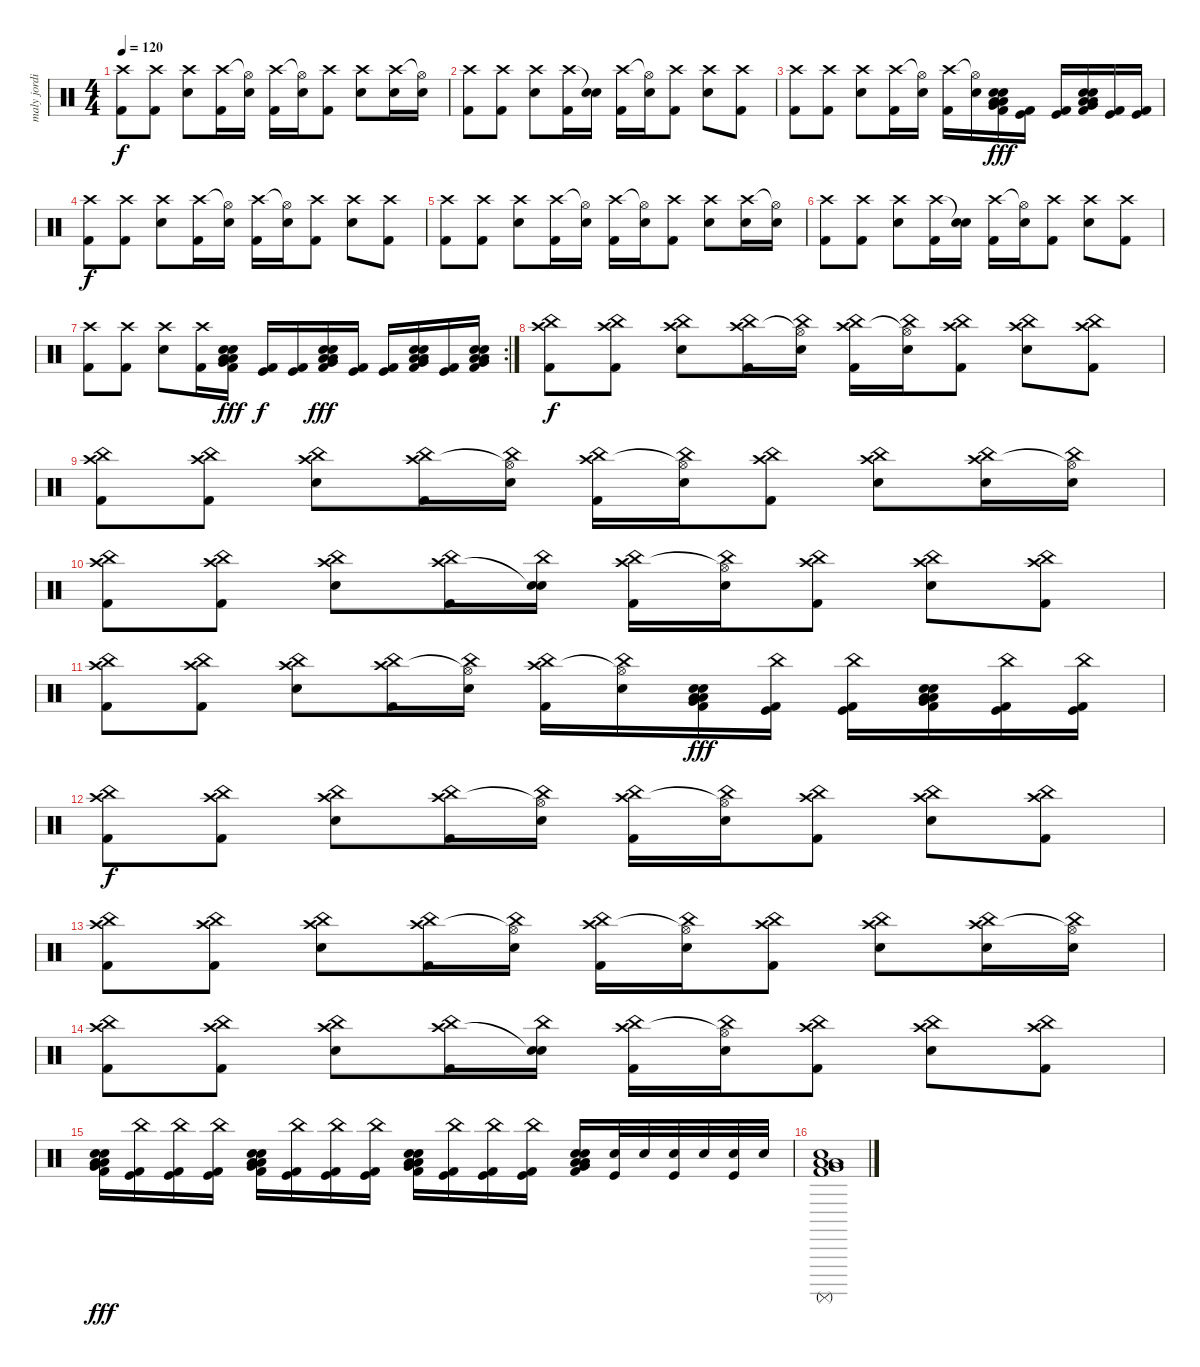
\track ("maly jordison" "maly jordi") {instrument percussion}
\staff {score}
\articulation defaults
\ts (4 4)
\tempo 120
\clef neutral
\ks c
("Crash high (hit)" "Kick (hit) 2").8{dy f} ("Crash high (hit)" "Kick (hit) 2").8 ("Crash high (hit)" "Electric Snare (hit)").8 ("Crash high (hit)" "Kick (hit) 2").16 ("Hi-Hat (open)"{t} "Electric Snare (hit)").16 ("Crash high (hit)" "Kick (hit) 2").16 ("Hi-Hat (open)"{t} "Electric Snare (hit)").16 ("Crash high (hit)" "Kick (hit) 2").8 ("Crash high (hit)" "Electric Snare (hit)").8 ("Crash high (hit)" "Electric Snare (hit)").16 ("Hi-Hat (open)"{t} "Electric Snare (hit)").16 |
("Crash high (hit)" "Kick (hit) 2").8 ("Crash high (hit)" "Kick (hit) 2").8 ("Crash high (hit)" "Electric Snare (hit)").8 ("Crash high (hit)" "Kick (hit) 2").16 ("Snare (hit)"{t} "Electric Snare (hit)").16 ("Crash high (hit)" "Kick (hit) 2").16 ("Hi-Hat (open)"{t} "Electric Snare (hit)").16 ("Crash high (hit)" "Kick (hit) 2").8 ("Crash high (hit)" "Electric Snare (hit)").8 ("Crash high (hit)" "Kick (hit) 2").8 |
("Crash high (hit)" "Kick (hit) 2").8 ("Crash high (hit)" "Kick (hit) 2").8 ("Crash high (hit)" "Electric Snare (hit)").8 ("Crash high (hit)" "Kick (hit) 2").16 ("Hi-Hat (open)"{t} "Electric Snare (hit)").16 ("Crash high (hit)" "Kick (hit) 2").16 ("Hi-Hat (open)"{t} "Electric Snare (hit)").16 ("Kick (hit) 2" "Very Low Tom (hit)" "Low Floor Tom (hit)" "Low Floor Tom (hit)" "Electric Snare (hit)" "Electric Snare (hit)").16{dy fff} ("Kick (hit)" "Kick (hit) 2").16 ("Kick (hit)" "Kick (hit) 2").16 ("Kick (hit) 2" "Very Low Tom (hit)" "Low Floor Tom (hit)" "Low Floor Tom (hit)" "Electric Snare (hit)" "Electric Snare (hit)").16 ("Kick (hit)" "Kick (hit) 2").16 ("Kick (hit)" "Kick (hit) 2").16 |
("Crash high (hit)" "Kick (hit) 2").8{dy f} ("Crash high (hit)" "Kick (hit) 2").8 ("Crash high (hit)" "Electric Snare (hit)").8 ("Crash high (hit)" "Kick (hit) 2").16 ("Hi-Hat (open)"{t} "Electric Snare (hit)").16 ("Crash high (hit)" "Kick (hit) 2").16 ("Hi-Hat (open)"{t} "Electric Snare (hit)").16 ("Crash high (hit)" "Kick (hit) 2").8 ("Crash high (hit)" "Electric Snare (hit)").8 ("Crash high (hit)" "Kick (hit) 2").8 |
("Crash high (hit)" "Kick (hit) 2").8 ("Crash high (hit)" "Kick (hit) 2").8 ("Crash high (hit)" "Electric Snare (hit)").8 ("Crash high (hit)" "Kick (hit) 2").16 ("Hi-Hat (open)"{t} "Electric Snare (hit)").16 ("Crash high (hit)" "Kick (hit) 2").16 ("Hi-Hat (open)"{t} "Electric Snare (hit)").16 ("Crash high (hit)" "Kick (hit) 2").8 ("Crash high (hit)" "Electric Snare (hit)").8 ("Crash high (hit)" "Electric Snare (hit)").16 ("Hi-Hat (open)"{t} "Electric Snare (hit)").16 |
("Crash high (hit)" "Kick (hit) 2").8 ("Crash high (hit)" "Kick (hit) 2").8 ("Crash high (hit)" "Electric Snare (hit)").8 ("Crash high (hit)" "Kick (hit) 2").16 ("Snare (hit)"{t} "Electric Snare (hit)").16 ("Crash high (hit)" "Kick (hit) 2").16 ("Hi-Hat (open)"{t} "Electric Snare (hit)").16 ("Crash high (hit)" "Kick (hit) 2").8 ("Crash high (hit)" "Electric Snare (hit)").8 ("Crash high (hit)" "Kick (hit) 2").8 |
\rc 2
("Crash high (hit)" "Kick (hit) 2").8 ("Crash high (hit)" "Kick (hit) 2").8 ("Crash high (hit)" "Electric Snare (hit)").8 ("Crash high (hit)" "Kick (hit) 2").16 ("Kick (hit) 2" "Very Low Tom (hit)" "Low Floor Tom (hit)" "Low Floor Tom (hit)" "Electric Snare (hit)" "Electric Snare (hit)").16{dy fff} ("Kick (hit)" "Kick (hit) 2").16{dy f} ("Kick (hit)" "Kick (hit) 2").16 ("Kick (hit) 2" "Very Low Tom (hit)" "Low Floor Tom (hit)" "Low Floor Tom (hit)" "Electric Snare (hit)" "Electric Snare (hit)").16{dy fff} ("Kick (hit)" "Kick (hit) 2").16 ("Kick (hit)" "Kick (hit) 2").16 ("Kick (hit) 2" "Very Low Tom (hit)" "Low Floor Tom (hit)" "Low Floor Tom (hit)" "Electric Snare (hit)" "Electric Snare (hit)").16 ("Kick (hit)" "Kick (hit) 2").16 ("Kick (hit) 2" "Very Low Tom (hit)" "Low Floor Tom (hit)" "Low Floor Tom (hit)" "Electric Snare (hit)" "Electric Snare (hit)").16 |
("Crash high (hit)" "China (hit)" "Kick (hit) 2").8{dy f} ("Crash high (hit)" "China (hit)" "Kick (hit) 2").8 ("Crash high (hit)" "China (hit)" "Electric Snare (hit)").8 ("Crash high (hit)" "China (hit)" "Kick (hit) 2").16 ("Hi-Hat (open)"{t} "China (hit)" "Electric Snare (hit)").16 ("Crash high (hit)" "China (hit)" "Kick (hit) 2").16 ("Hi-Hat (open)"{t} "China (hit)" "Electric Snare (hit)").16 ("Crash high (hit)" "China (hit)" "Kick (hit) 2").8 ("Crash high (hit)" "China (hit)" "Electric Snare (hit)").8 ("Crash high (hit)" "China (hit)" "Kick (hit) 2").8 |
("Crash high (hit)" "China (hit)" "Kick (hit) 2").8 ("Crash high (hit)" "China (hit)" "Kick (hit) 2").8 ("Crash high (hit)" "China (hit)" "Electric Snare (hit)").8 ("Crash high (hit)" "China (hit)" "Kick (hit) 2").16 ("Hi-Hat (open)"{t} "China (hit)" "Electric Snare (hit)").16 ("Crash high (hit)" "China (hit)" "Kick (hit) 2").16 ("Hi-Hat (open)"{t} "China (hit)" "Electric Snare (hit)").16 ("Crash high (hit)" "China (hit)" "Kick (hit) 2").8 ("Crash high (hit)" "China (hit)" "Electric Snare (hit)").8 ("Crash high (hit)" "China (hit)" "Electric Snare (hit)").16 ("Hi-Hat (open)"{t} "China (hit)" "Electric Snare (hit)").16 |
("Crash high (hit)" "China (hit)" "Kick (hit) 2").8 ("Crash high (hit)" "China (hit)" "Kick (hit) 2").8 ("Crash high (hit)" "China (hit)" "Electric Snare (hit)").8 ("Crash high (hit)" "China (hit)" "Kick (hit) 2").16 ("Snare (hit)"{t} "China (hit)" "Electric Snare (hit)").16 ("Crash high (hit)" "China (hit)" "Kick (hit) 2").16 ("Hi-Hat (open)"{t} "China (hit)" "Electric Snare (hit)").16 ("Crash high (hit)" "China (hit)" "Kick (hit) 2").8 ("Crash high (hit)" "China (hit)" "Electric Snare (hit)").8 ("Crash high (hit)" "China (hit)" "Kick (hit) 2").8 |
("Crash high (hit)" "China (hit)" "Kick (hit) 2").8 ("Crash high (hit)" "China (hit)" "Kick (hit) 2").8 ("Crash high (hit)" "China (hit)" "Electric Snare (hit)").8 ("Crash high (hit)" "China (hit)" "Kick (hit) 2").16 ("Hi-Hat (open)"{t} "China (hit)" "Electric Snare (hit)").16 ("Crash high (hit)" "China (hit)" "Kick (hit) 2").16 ("Hi-Hat (open)"{t} "China (hit)" "Electric Snare (hit)").16 ("Kick (hit) 2" "Very Low Tom (hit)" "Low Floor Tom (hit)" "Low Floor Tom (hit)" "Electric Snare (hit)" "Electric Snare (hit)").16{dy fff} ("Kick (hit)" "China (hit)" "Kick (hit) 2").16 ("Kick (hit)" "China (hit)" "Kick (hit) 2").16 ("Kick (hit) 2" "Very Low Tom (hit)" "Low Floor Tom (hit)" "Low Floor Tom (hit)" "Electric Snare (hit)" "Electric Snare (hit)").16 ("Kick (hit)" "China (hit)" "Kick (hit) 2").16 ("Kick (hit)" "China (hit)" "Kick (hit) 2").16 |
("Crash high (hit)" "China (hit)" "Kick (hit) 2").8{dy f} ("Crash high (hit)" "China (hit)" "Kick (hit) 2").8 ("Crash high (hit)" "China (hit)" "Electric Snare (hit)").8 ("Crash high (hit)" "China (hit)" "Kick (hit) 2").16 ("Hi-Hat (open)"{t} "China (hit)" "Electric Snare (hit)").16 ("Crash high (hit)" "China (hit)" "Kick (hit) 2").16 ("Hi-Hat (open)"{t} "China (hit)" "Electric Snare (hit)").16 ("Crash high (hit)" "China (hit)" "Kick (hit) 2").8 ("Crash high (hit)" "China (hit)" "Electric Snare (hit)").8 ("Crash high (hit)" "China (hit)" "Kick (hit) 2").8 |
("Crash high (hit)" "China (hit)" "Kick (hit) 2").8 ("Crash high (hit)" "China (hit)" "Kick (hit) 2").8 ("Crash high (hit)" "China (hit)" "Electric Snare (hit)").8 ("Crash high (hit)" "China (hit)" "Kick (hit) 2").16 ("Hi-Hat (open)"{t} "China (hit)" "Electric Snare (hit)").16 ("Crash high (hit)" "China (hit)" "Kick (hit) 2").16 ("Hi-Hat (open)"{t} "China (hit)" "Electric Snare (hit)").16 ("Crash high (hit)" "China (hit)" "Kick (hit) 2").8 ("Crash high (hit)" "China (hit)" "Electric Snare (hit)").8 ("Crash high (hit)" "China (hit)" "Electric Snare (hit)").16 ("Hi-Hat (open)"{t} "China (hit)" "Electric Snare (hit)").16 |
("Crash high (hit)" "China (hit)" "Kick (hit) 2").8 ("Crash high (hit)" "China (hit)" "Kick (hit) 2").8 ("Crash high (hit)" "China (hit)" "Electric Snare (hit)").8 ("Crash high (hit)" "China (hit)" "Kick (hit) 2").16 ("Snare (hit)"{t} "China (hit)" "Electric Snare (hit)").16 ("Crash high (hit)" "China (hit)" "Kick (hit) 2").16 ("Hi-Hat (open)"{t} "China (hit)" "Electric Snare (hit)").16 ("Crash high (hit)" "China (hit)" "Kick (hit) 2").8 ("Crash high (hit)" "China (hit)" "Electric Snare (hit)").8 ("Crash high (hit)" "China (hit)" "Kick (hit) 2").8 |
("Kick (hit) 2" "Very Low Tom (hit)" "Low Floor Tom (hit)" "Low Floor Tom (hit)" "Electric Snare (hit)" "Electric Snare (hit)").16{dy fff} ("Kick (hit)" "China (hit)" "Kick (hit) 2").16 ("Kick (hit)" "China (hit)" "Kick (hit) 2").16 ("Kick (hit)" "China (hit)" "Kick (hit) 2").16 ("Kick (hit) 2" "Very Low Tom (hit)" "Low Floor Tom (hit)" "Low Floor Tom (hit)" "Electric Snare (hit)" "Electric Snare (hit)").16 ("Kick (hit)" "China (hit)" "Kick (hit) 2").16 ("Kick (hit)" "China (hit)" "Kick (hit) 2").16 ("Kick (hit)" "China (hit)" "Kick (hit) 2").16 ("Kick (hit) 2" "Very Low Tom (hit)" "Low Floor Tom (hit)" "Low Floor Tom (hit)" "Electric Snare (hit)" "Electric Snare (hit)").16 ("Kick (hit)" "China (hit)" "Kick (hit) 2").16 ("Kick (hit)" "China (hit)" "Kick (hit) 2").16 ("Kick (hit)" "China (hit)" "Kick (hit) 2").16 ("Kick (hit) 2" "Very Low Tom (hit)" "Low Floor Tom (hit)" "Low Floor Tom (hit)" "Electric Snare (hit)" "Electric Snare (hit)").16 ("Kick (hit)" "Electric Snare (hit)").32 "Electric Snare (hit)".32 ("Kick (hit)" "Electric Snare (hit)").32 "Electric Snare (hit)".32 ("Kick (hit)" "Electric Snare (hit)").32 "Electric Snare (hit)".32 |
("Surdo (mute)" "Kick (hit) 2" "Low Floor Tom (hit)" "Very Low Tom (hit)" "Low Floor Tom (hit)" "Electric Snare (hit)").1
